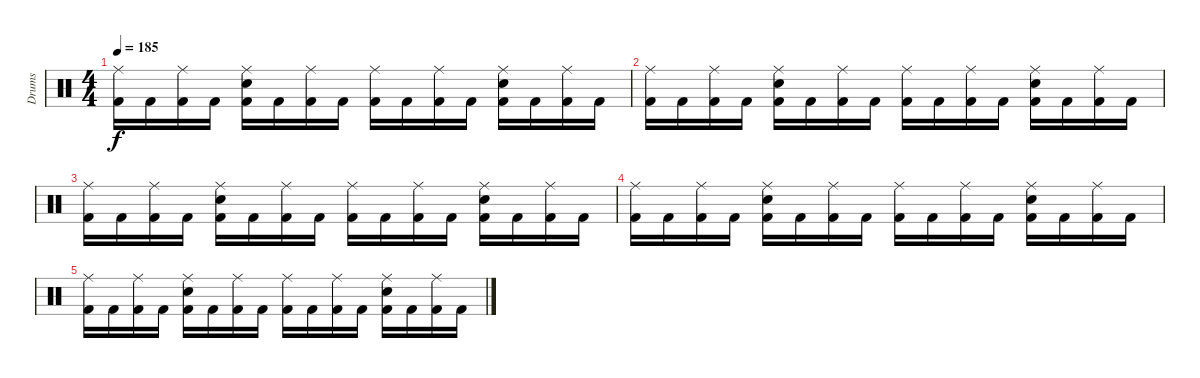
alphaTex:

\track ("Drums" "Drums") {instrument percussion}
\staff {score}
\articulation defaults
\ts (4 4)
\tempo 185
\clef neutral
\ks c
("Ride (middle)" "Kick (hit) 2").16{dy f} "Kick (hit) 2".16 ("Ride (middle)" "Kick (hit) 2").16 "Kick (hit) 2".16 ("Ride (middle)" "Electric Snare (hit)" "Kick (hit) 2").16 "Kick (hit) 2".16 ("Ride (middle)" "Kick (hit) 2").16 "Kick (hit) 2".16 ("Ride (middle)" "Kick (hit) 2").16 "Kick (hit) 2".16 ("Ride (middle)" "Kick (hit) 2").16 "Kick (hit) 2".16 ("Ride (middle)" "Electric Snare (hit)" "Kick (hit) 2").16 "Kick (hit) 2".16 ("Ride (middle)" "Kick (hit) 2").16 "Kick (hit) 2".16 |
("Ride (middle)" "Kick (hit) 2").16{volume 8} "Kick (hit) 2".16 ("Ride (middle)" "Kick (hit) 2").16 "Kick (hit) 2".16 ("Ride (middle)" "Electric Snare (hit)" "Kick (hit) 2").16 "Kick (hit) 2".16 ("Ride (middle)" "Kick (hit) 2").16 "Kick (hit) 2".16 ("Ride (middle)" "Kick (hit) 2").16 "Kick (hit) 2".16 ("Ride (middle)" "Kick (hit) 2").16 "Kick (hit) 2".16 ("Ride (middle)" "Electric Snare (hit)" "Kick (hit) 2").16 "Kick (hit) 2".16 ("Ride (middle)" "Kick (hit) 2").16 "Kick (hit) 2".16 |
("Ride (middle)" "Kick (hit) 2").16{volume 6} "Kick (hit) 2".16 ("Ride (middle)" "Kick (hit) 2").16 "Kick (hit) 2".16 ("Ride (middle)" "Electric Snare (hit)" "Kick (hit) 2").16 "Kick (hit) 2".16 ("Ride (middle)" "Kick (hit) 2").16 "Kick (hit) 2".16 ("Ride (middle)" "Kick (hit) 2").16 "Kick (hit) 2".16 ("Ride (middle)" "Kick (hit) 2").16 "Kick (hit) 2".16 ("Ride (middle)" "Electric Snare (hit)" "Kick (hit) 2").16 "Kick (hit) 2".16 ("Ride (middle)" "Kick (hit) 2").16 "Kick (hit) 2".16 |
("Ride (middle)" "Kick (hit) 2").16{volume 4} "Kick (hit) 2".16 ("Ride (middle)" "Kick (hit) 2").16 "Kick (hit) 2".16 ("Ride (middle)" "Electric Snare (hit)" "Kick (hit) 2").16 "Kick (hit) 2".16 ("Ride (middle)" "Kick (hit) 2").16 "Kick (hit) 2".16 ("Ride (middle)" "Kick (hit) 2").16 "Kick (hit) 2".16 ("Ride (middle)" "Kick (hit) 2").16 "Kick (hit) 2".16 ("Ride (middle)" "Electric Snare (hit)" "Kick (hit) 2").16 "Kick (hit) 2".16 ("Ride (middle)" "Kick (hit) 2").16 "Kick (hit) 2".16 |
("Ride (middle)" "Kick (hit) 2").16{volume 2} "Kick (hit) 2".16 ("Ride (middle)" "Kick (hit) 2").16 "Kick (hit) 2".16 ("Ride (middle)" "Electric Snare (hit)" "Kick (hit) 2").16 "Kick (hit) 2".16 ("Ride (middle)" "Kick (hit) 2").16 "Kick (hit) 2".16 ("Ride (middle)" "Kick (hit) 2").16 "Kick (hit) 2".16 ("Ride (middle)" "Kick (hit) 2").16 "Kick (hit) 2".16 ("Ride (middle)" "Electric Snare (hit)" "Kick (hit) 2").16 "Kick (hit) 2".16 ("Ride (middle)" "Kick (hit) 2").16 "Kick (hit) 2".16{volume 0}
